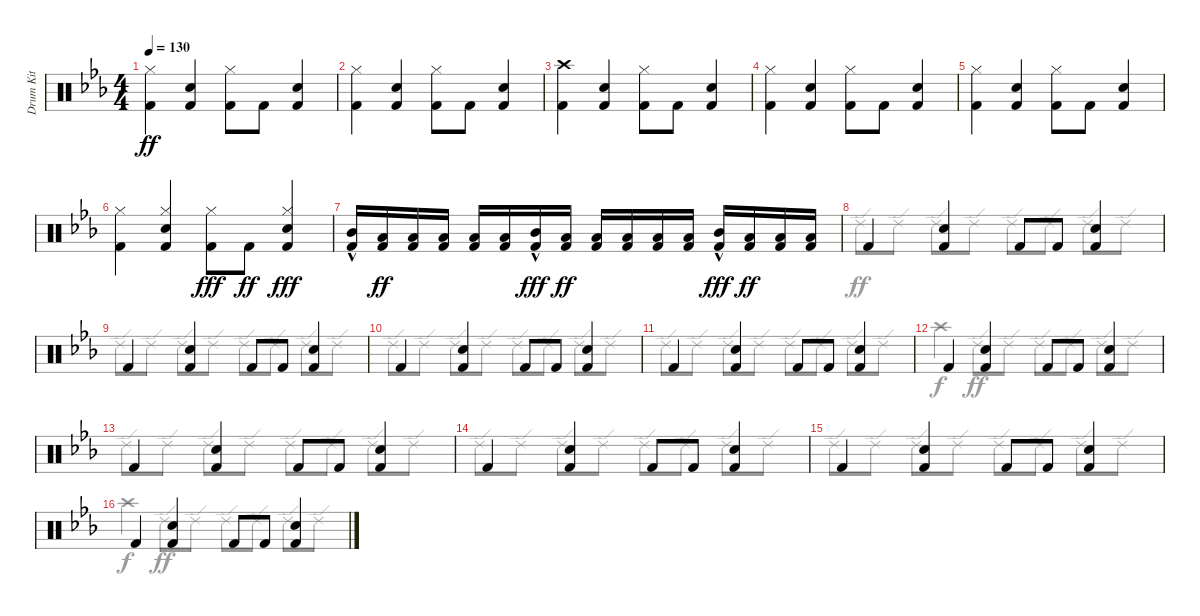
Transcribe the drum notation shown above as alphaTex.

\track ("Drum Kit" "Drum Kit") {instrument percussion}
\staff {score}
\articulation defaults
\voice
\ts (4 4)
\tempo 130
\clef neutral
\ks cminor
("Kick (hit) 2" "Hi-Hat (closed)").4{dy ff} ("Kick (hit) 2" "Electric Snare (hit)").4 ("Kick (hit) 2" "Hi-Hat (closed)").8 "Kick (hit) 2".8 ("Kick (hit) 2" "Electric Snare (hit)").4 |
("Kick (hit) 2" "Hi-Hat (closed)").4 ("Kick (hit) 2" "Electric Snare (hit)").4 ("Kick (hit) 2" "Hi-Hat (closed)").8 "Kick (hit) 2".8 ("Kick (hit) 2" "Electric Snare (hit)").4 |
("Kick (hit) 2" "Crash high (hit)").4 ("Kick (hit) 2" "Electric Snare (hit)").4 ("Kick (hit) 2" "Hi-Hat (closed)").8 "Kick (hit) 2".8 ("Kick (hit) 2" "Electric Snare (hit)").4 |
("Kick (hit) 2" "Hi-Hat (closed)").4 ("Kick (hit) 2" "Electric Snare (hit)").4 ("Kick (hit) 2" "Hi-Hat (closed)").8 "Kick (hit) 2".8 ("Kick (hit) 2" "Electric Snare (hit)").4 |
("Kick (hit) 2" "Hi-Hat (closed)").4 ("Kick (hit) 2" "Electric Snare (hit)").4 ("Kick (hit) 2" "Hi-Hat (closed)").8 "Kick (hit) 2".8 ("Kick (hit) 2" "Electric Snare (hit)").4 |
("Kick (hit) 2" "Hi-Hat (closed)").4 ("Kick (hit) 2" "Electric Snare (hit)" "Hi-Hat (closed)").4 ("Kick (hit) 2" "Hi-Hat (closed)").8{dy fff} "Kick (hit) 2".8{dy ff} ("Kick (hit) 2" "Electric Snare (hit)" "Hi-Hat (closed)").4{dy fff} |
("Kick (hit) 2"{hac} "Mid Tom (hit)"{hac}).16 ("Kick (hit) 2" "Low Tom (hit)").16{dy ff} ("Kick (hit) 2" "Low Tom (hit)").16 ("Kick (hit) 2" "Low Tom (hit)").16 ("Kick (hit) 2" "Low Tom (hit)").16 ("Kick (hit) 2" "Low Tom (hit)").16 ("Kick (hit) 2"{hac} "Mid Tom (hit)"{hac}).16{dy fff} ("Kick (hit) 2" "Low Tom (hit)").16{dy ff} ("Kick (hit) 2" "Low Tom (hit)").16 ("Kick (hit) 2" "Low Tom (hit)").16 ("Kick (hit) 2" "Low Tom (hit)").16 ("Kick (hit) 2" "Low Tom (hit)").16 ("Kick (hit) 2"{hac} "Mid Tom (hit)"{hac}).16{dy fff} ("Kick (hit) 2" "Low Tom (hit)").16{dy ff} ("Kick (hit) 2" "Low Tom (hit)").16 ("Kick (hit) 2" "Low Tom (hit)").16 |
"Kick (hit) 2".4 ("Kick (hit) 2" "Electric Snare (hit)").4 "Kick (hit) 2".8 "Kick (hit) 2".8 ("Kick (hit) 2" "Electric Snare (hit)").4 |
"Kick (hit) 2".4 ("Kick (hit) 2" "Electric Snare (hit)").4 "Kick (hit) 2".8 "Kick (hit) 2".8 ("Kick (hit) 2" "Electric Snare (hit)").4 |
"Kick (hit) 2".4 ("Kick (hit) 2" "Electric Snare (hit)").4 "Kick (hit) 2".8 "Kick (hit) 2".8 ("Kick (hit) 2" "Electric Snare (hit)").4 |
"Kick (hit) 2".4 ("Kick (hit) 2" "Electric Snare (hit)").4 "Kick (hit) 2".8 "Kick (hit) 2".8 ("Kick (hit) 2" "Electric Snare (hit)").4 |
"Kick (hit) 2".4 ("Kick (hit) 2" "Electric Snare (hit)").4 "Kick (hit) 2".8 "Kick (hit) 2".8 ("Kick (hit) 2" "Electric Snare (hit)").4 |
"Kick (hit) 2".4 ("Kick (hit) 2" "Electric Snare (hit)").4 "Kick (hit) 2".8 "Kick (hit) 2".8 ("Kick (hit) 2" "Electric Snare (hit)").4 |
"Kick (hit) 2".4 ("Kick (hit) 2" "Electric Snare (hit)").4 "Kick (hit) 2".8 "Kick (hit) 2".8 ("Kick (hit) 2" "Electric Snare (hit)").4 |
"Kick (hit) 2".4 ("Kick (hit) 2" "Electric Snare (hit)").4 "Kick (hit) 2".8 "Kick (hit) 2".8 ("Kick (hit) 2" "Electric Snare (hit)").4 |
"Kick (hit) 2".4 ("Kick (hit) 2" "Electric Snare (hit)").4 "Kick (hit) 2".8 "Kick (hit) 2".8 ("Kick (hit) 2" "Electric Snare (hit)").4
\voice
\clef neutral
\ottava regular
\simile none
\ks cminor
|
|
|
|
|
|
|
"Ride (edge) 2".8{dy ff} "Ride (edge) 2".8 "Ride (edge) 2".8 "Ride (edge) 2".8 "Ride (edge) 2".8 "Ride (edge) 2".8 "Ride (edge) 2".8 "Ride (edge) 2".8 |
"Ride (edge) 2".8 "Ride (edge) 2".8 "Ride (edge) 2".8 "Ride (edge) 2".8 "Ride (edge) 2".8 "Ride (edge) 2".8 "Ride (edge) 2".8 "Ride (edge) 2".8 |
"Ride (edge) 2".8 "Ride (edge) 2".8 "Ride (edge) 2".8 "Ride (edge) 2".8 "Ride (edge) 2".8 "Ride (edge) 2".8 "Ride (edge) 2".8 "Ride (edge) 2".8 |
"Ride (edge) 2".8 "Ride (edge) 2".8 "Ride (edge) 2".8 "Ride (edge) 2".8 "Ride (edge) 2".8 "Ride (edge) 2".8 "Ride (edge) 2".8 "Ride (edge) 2".8 |
"Crash high (hit)".4{dy f} "Ride (edge) 2".8{dy ff} "Ride (edge) 2".8 "Ride (edge) 2".8 "Ride (edge) 2".8 "Ride (edge) 2".8 "Ride (edge) 2".8 |
"Ride (edge) 2".8 "Ride (edge) 2".8 "Ride (edge) 2".8 "Ride (edge) 2".8 "Ride (edge) 2".8 "Ride (edge) 2".8 "Ride (edge) 2".8 "Ride (edge) 2".8 |
"Ride (edge) 2".8 "Ride (edge) 2".8 "Ride (edge) 2".8 "Ride (edge) 2".8 "Ride (edge) 2".8 "Ride (edge) 2".8 "Ride (edge) 2".8 "Ride (edge) 2".8 |
"Ride (edge) 2".8 "Ride (edge) 2".8 "Ride (edge) 2".8 "Ride (edge) 2".8 "Ride (edge) 2".8 "Ride (edge) 2".8 "Ride (edge) 2".8 "Ride (edge) 2".8 |
"Crash high (hit)".4{dy f} "Ride (edge) 2".8{dy ff} "Ride (edge) 2".8 "Ride (edge) 2".8 "Ride (edge) 2".8 "Ride (edge) 2".8 "Ride (edge) 2".8
